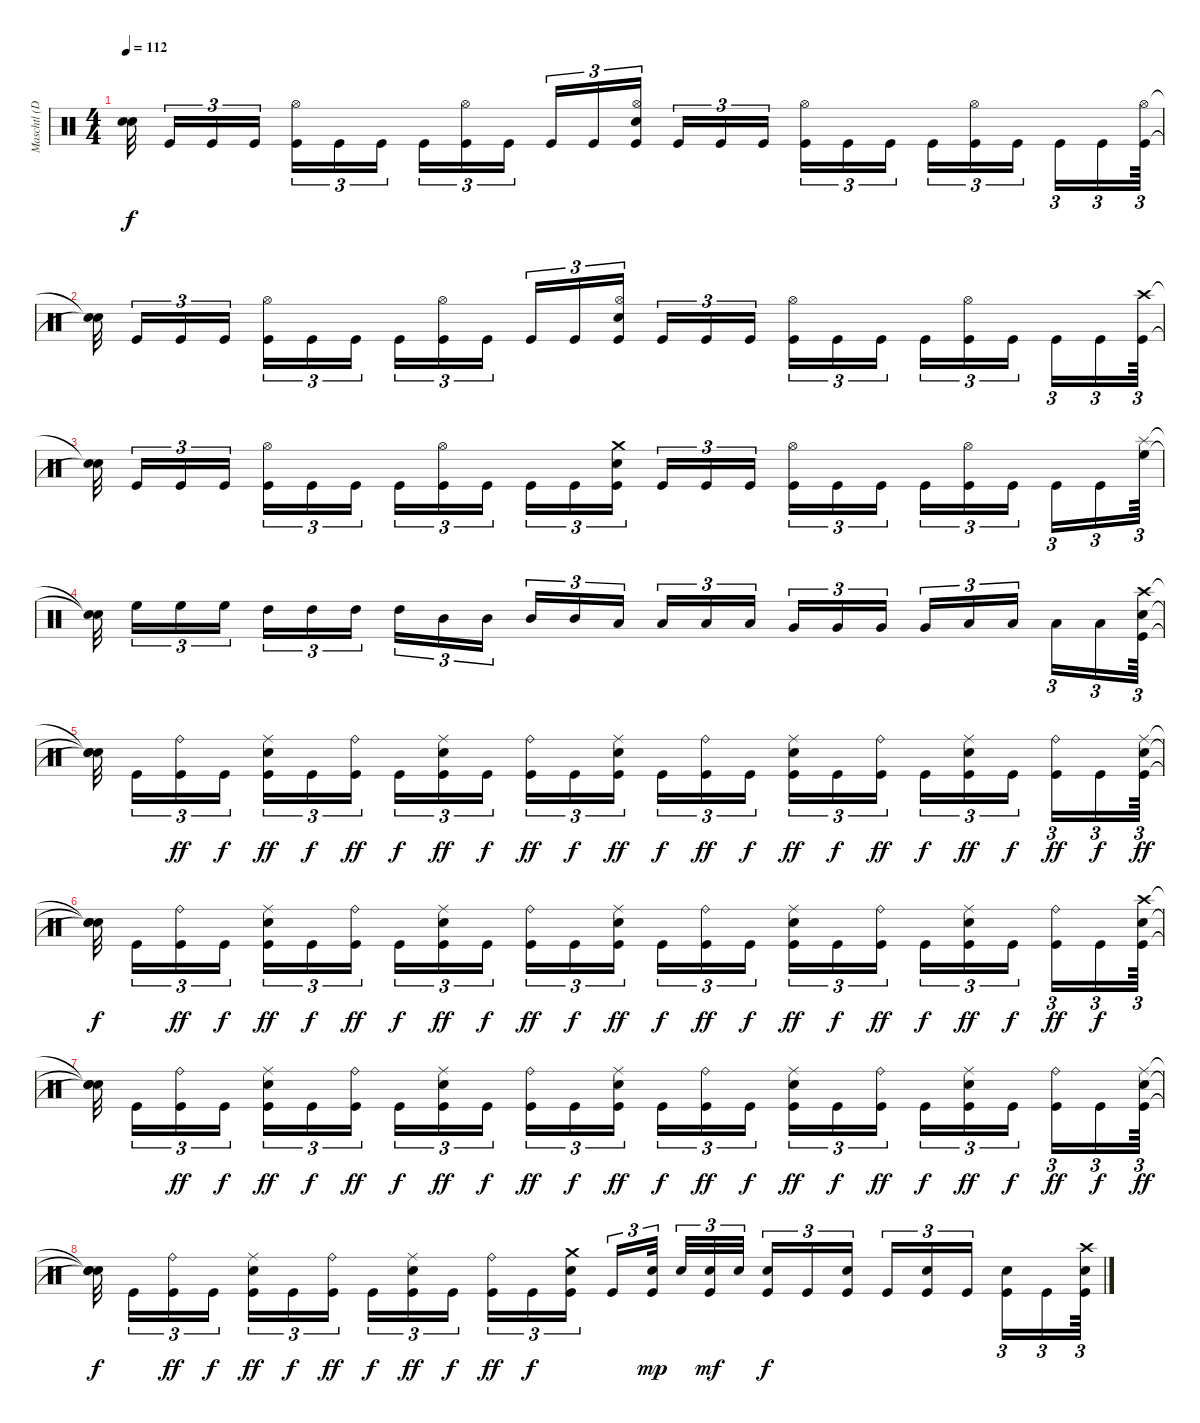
\track ("Maschtl (Drums)" "Maschtl (D") {instrument percussion}
\staff {score}
\articulation defaults
\ts (4 4)
\tempo 112
\clef neutral
\ks c
("Snare (hit)"{t} "Snare (hit)"{t}).32{dy f} "Kick (hit)".16{tu (3 2)} "Kick (hit)".16{tu (3 2)} "Kick (hit)".16{tu (3 2)} ("Hi-Hat (open)" "Kick (hit)").16{tu (3 2)} "Kick (hit)".16{tu (3 2)} "Kick (hit)".16{tu (3 2)} "Kick (hit)".16{tu (3 2)} ("Hi-Hat (open)" "Kick (hit)").16{tu (3 2)} "Kick (hit)".16{tu (3 2)} "Kick (hit)".16{tu (3 2)} "Kick (hit)".16{tu (3 2)} ("Hi-Hat (open)" "Electric Snare (hit)" "Kick (hit)").16{tu (3 2)} "Kick (hit)".16{tu (3 2)} "Kick (hit)".16{tu (3 2)} "Kick (hit)".16{tu (3 2)} ("Hi-Hat (open)" "Kick (hit)").16{tu (3 2)} "Kick (hit)".16{tu (3 2)} "Kick (hit)".16{tu (3 2)} "Kick (hit)".16{tu (3 2)} ("Hi-Hat (open)" "Kick (hit)").16{tu (3 2)} "Kick (hit)".16{tu (3 2)} "Kick (hit)".16{tu (3 2)} "Kick (hit)".16{tu (3 2)} ("Hi-Hat (open)" "Kick (hit)").64{tu (3 2)} |
("Snare (hit)"{t} "Snare (hit)"{t}).32 "Kick (hit)".16{tu (3 2)} "Kick (hit)".16{tu (3 2)} "Kick (hit)".16{tu (3 2)} ("Hi-Hat (open)" "Kick (hit)").16{tu (3 2)} "Kick (hit)".16{tu (3 2)} "Kick (hit)".16{tu (3 2)} "Kick (hit)".16{tu (3 2)} ("Hi-Hat (open)" "Kick (hit)").16{tu (3 2)} "Kick (hit)".16{tu (3 2)} "Kick (hit)".16{tu (3 2)} "Kick (hit)".16{tu (3 2)} ("Hi-Hat (open)" "Electric Snare (hit)" "Kick (hit)").16{tu (3 2)} "Kick (hit)".16{tu (3 2)} "Kick (hit)".16{tu (3 2)} "Kick (hit)".16{tu (3 2)} ("Hi-Hat (open)" "Kick (hit)").16{tu (3 2)} "Kick (hit)".16{tu (3 2)} "Kick (hit)".16{tu (3 2)} "Kick (hit)".16{tu (3 2)} ("Hi-Hat (open)" "Kick (hit)").16{tu (3 2)} "Kick (hit)".16{tu (3 2)} "Kick (hit)".16{tu (3 2)} "Kick (hit)".16{tu (3 2)} ("Crash high (hit)" "Kick (hit)").64{tu (3 2)} |
("Snare (hit)"{t} "Snare (hit)"{t}).32 "Kick (hit)".16{tu (3 2)} "Kick (hit)".16{tu (3 2)} "Kick (hit)".16{tu (3 2)} ("Hi-Hat (open)" "Kick (hit)").16{tu (3 2)} "Kick (hit)".16{tu (3 2)} "Kick (hit)".16{tu (3 2)} "Kick (hit)".16{tu (3 2)} ("Hi-Hat (open)" "Kick (hit)").16{tu (3 2)} "Kick (hit)".16{tu (3 2)} "Kick (hit)".16{tu (3 2)} "Kick (hit)".16{tu (3 2)} ("Crash medium (hit)" "Electric Snare (hit)" "Kick (hit)").16{tu (3 2)} "Kick (hit)".16{tu (3 2)} "Kick (hit)".16{tu (3 2)} "Kick (hit)".16{tu (3 2)} ("Hi-Hat (open)" "Kick (hit)").16{tu (3 2)} "Kick (hit)".16{tu (3 2)} "Kick (hit)".16{tu (3 2)} "Kick (hit)".16{tu (3 2)} ("Hi-Hat (open)" "Kick (hit)").16{tu (3 2)} "Kick (hit)".16{tu (3 2)} "Kick (hit)".16{tu (3 2)} "Kick (hit)".16{tu (3 2)} ("Splash (hit)" "High Floor Tom (hit)").64{tu (3 2)} |
("Snare (hit)"{t} "Snare (hit)"{t}).32 "High Floor Tom (hit)".16{tu (3 2)} "High Floor Tom (hit)".16{tu (3 2)} "High Floor Tom (hit)".16{tu (3 2)} "High Tom (hit)".16{tu (3 2)} "High Tom (hit)".16{tu (3 2)} "High Tom (hit)".16{tu (3 2)} "High Tom (hit)".16{tu (3 2)} "Mid Tom (hit)".16{tu (3 2)} "Mid Tom (hit)".16{tu (3 2)} "Mid Tom (hit)".16{tu (3 2)} "Mid Tom (hit)".16{tu (3 2)} "Low Tom (hit)".16{tu (3 2)} "Low Tom (hit)".16{tu (3 2)} "Low Tom (hit)".16{tu (3 2)} "Low Tom (hit)".16{tu (3 2)} "Very Low Tom (hit)".16{tu (3 2)} "Very Low Tom (hit)".16{tu (3 2)} "Very Low Tom (hit)".16{tu (3 2)} "Very Low Tom (hit)".16{tu (3 2)} "Low Floor Tom (hit)".16{tu (3 2)} "Low Floor Tom (hit)".16{tu (3 2)} "Low Floor Tom (hit)".16{tu (3 2)} "Low Floor Tom (hit)".16{tu (3 2)} ("Crash high (hit)" "Electric Snare (hit)" "Kick (hit)").64{tu (3 2)} |
("Snare (hit)"{t} "Snare (hit)"{t} "Snare (hit)"{t}).32 "Kick (hit)".16{tu (3 2)} ("Ride (bell)" "Kick (hit)").16{tu (3 2) dy ff} "Kick (hit)".16{tu (3 2) dy f} ("Ride (middle)" "Electric Snare (hit)" "Kick (hit)").16{tu (3 2) dy ff} "Kick (hit)".16{tu (3 2) dy f} ("Ride (bell)" "Kick (hit)").16{tu (3 2) dy ff} "Kick (hit)".16{tu (3 2) dy f} ("Ride (middle)" "Electric Snare (hit)" "Kick (hit)").16{tu (3 2) dy ff} "Kick (hit)".16{tu (3 2) dy f} ("Ride (bell)" "Kick (hit)").16{tu (3 2) dy ff} "Kick (hit)".16{tu (3 2) dy f} ("Ride (middle)" "Electric Snare (hit)" "Kick (hit)").16{tu (3 2) dy ff} "Kick (hit)".16{tu (3 2) dy f} ("Ride (bell)" "Kick (hit)").16{tu (3 2) dy ff} "Kick (hit)".16{tu (3 2) dy f} ("Ride (middle)" "Electric Snare (hit)" "Kick (hit)").16{tu (3 2) dy ff} "Kick (hit)".16{tu (3 2) dy f} ("Ride (bell)" "Kick (hit)").16{tu (3 2) dy ff} "Kick (hit)".16{tu (3 2) dy f} ("Ride (middle)" "Electric Snare (hit)" "Kick (hit)").16{tu (3 2) dy ff} "Kick (hit)".16{tu (3 2) dy f} ("Ride (bell)" "Kick (hit)").16{tu (3 2) dy ff} "Kick (hit)".16{tu (3 2) dy f} ("Ride (middle)" "Electric Snare (hit)" "Kick (hit)").64{tu (3 2) dy ff} |
("Snare (hit)"{t} "Snare (hit)"{t} "Snare (hit)"{t}).32{dy f} "Kick (hit)".16{tu (3 2)} ("Ride (bell)" "Kick (hit)").16{tu (3 2) dy ff} "Kick (hit)".16{tu (3 2) dy f} ("Ride (middle)" "Electric Snare (hit)" "Kick (hit)").16{tu (3 2) dy ff} "Kick (hit)".16{tu (3 2) dy f} ("Ride (bell)" "Kick (hit)").16{tu (3 2) dy ff} "Kick (hit)".16{tu (3 2) dy f} ("Ride (middle)" "Electric Snare (hit)" "Kick (hit)").16{tu (3 2) dy ff} "Kick (hit)".16{tu (3 2) dy f} ("Ride (bell)" "Kick (hit)").16{tu (3 2) dy ff} "Kick (hit)".16{tu (3 2) dy f} ("Ride (middle)" "Electric Snare (hit)" "Kick (hit)").16{tu (3 2) dy ff} "Kick (hit)".16{tu (3 2) dy f} ("Ride (bell)" "Kick (hit)").16{tu (3 2) dy ff} "Kick (hit)".16{tu (3 2) dy f} ("Ride (middle)" "Electric Snare (hit)" "Kick (hit)").16{tu (3 2) dy ff} "Kick (hit)".16{tu (3 2) dy f} ("Ride (bell)" "Kick (hit)").16{tu (3 2) dy ff} "Kick (hit)".16{tu (3 2) dy f} ("Ride (middle)" "Electric Snare (hit)" "Kick (hit)").16{tu (3 2) dy ff} "Kick (hit)".16{tu (3 2) dy f} ("Ride (bell)" "Kick (hit)").16{tu (3 2) dy ff} "Kick (hit)".16{tu (3 2) dy f} ("Crash high (hit)" "Electric Snare (hit)" "Kick (hit)").64{tu (3 2)} |
("Snare (hit)"{t} "Snare (hit)"{t} "Snare (hit)"{t}).32 "Kick (hit)".16{tu (3 2)} ("Ride (bell)" "Kick (hit)").16{tu (3 2) dy ff} "Kick (hit)".16{tu (3 2) dy f} ("Ride (middle)" "Electric Snare (hit)" "Kick (hit)").16{tu (3 2) dy ff} "Kick (hit)".16{tu (3 2) dy f} ("Ride (bell)" "Kick (hit)").16{tu (3 2) dy ff} "Kick (hit)".16{tu (3 2) dy f} ("Ride (middle)" "Electric Snare (hit)" "Kick (hit)").16{tu (3 2) dy ff} "Kick (hit)".16{tu (3 2) dy f} ("Ride (bell)" "Kick (hit)").16{tu (3 2) dy ff} "Kick (hit)".16{tu (3 2) dy f} ("Ride (middle)" "Electric Snare (hit)" "Kick (hit)").16{tu (3 2) dy ff} "Kick (hit)".16{tu (3 2) dy f} ("Ride (bell)" "Kick (hit)").16{tu (3 2) dy ff} "Kick (hit)".16{tu (3 2) dy f} ("Ride (middle)" "Electric Snare (hit)" "Kick (hit)").16{tu (3 2) dy ff} "Kick (hit)".16{tu (3 2) dy f} ("Ride (bell)" "Kick (hit)").16{tu (3 2) dy ff} "Kick (hit)".16{tu (3 2) dy f} ("Ride (middle)" "Electric Snare (hit)" "Kick (hit)").16{tu (3 2) dy ff} "Kick (hit)".16{tu (3 2) dy f} ("Ride (bell)" "Kick (hit)").16{tu (3 2) dy ff} "Kick (hit)".16{tu (3 2) dy f} ("Ride (middle)" "Electric Snare (hit)" "Kick (hit)").64{tu (3 2) dy ff} |
("Snare (hit)"{t} "Snare (hit)"{t} "Snare (hit)"{t}).32{dy f} "Kick (hit)".16{tu (3 2)} ("Ride (bell)" "Kick (hit)").16{tu (3 2) dy ff} "Kick (hit)".16{tu (3 2) dy f} ("Ride (middle)" "Electric Snare (hit)" "Kick (hit)").16{tu (3 2) dy ff} "Kick (hit)".16{tu (3 2) dy f} ("Ride (bell)" "Kick (hit)").16{tu (3 2) dy ff} "Kick (hit)".16{tu (3 2) dy f} ("Ride (middle)" "Electric Snare (hit)" "Kick (hit)").16{tu (3 2) dy ff} "Kick (hit)".16{tu (3 2) dy f} ("Ride (bell)" "Kick (hit)").16{tu (3 2) dy ff} "Kick (hit)".16{tu (3 2) dy f} ("Crash medium (hit)" "Electric Snare (hit)" "Kick (hit)").16{tu (3 2)} "Kick (hit)".16{tu (3 2)} ("Electric Snare (hit)" "Kick (hit)").32{tu (3 2) dy mp} "Electric Snare (hit)".32{tu (3 2)} ("Electric Snare (hit)" "Kick (hit)").32{tu (3 2) dy mf} "Electric Snare (hit)".32{tu (3 2)} ("Electric Snare (hit)" "Kick (hit)").16{tu (3 2) dy f} "Kick (hit)".16{tu (3 2)} ("Electric Snare (hit)" "Kick (hit)").16{tu (3 2)} "Kick (hit)".16{tu (3 2)} ("Electric Snare (hit)" "Kick (hit)").16{tu (3 2)} "Kick (hit)".16{tu (3 2)} ("Electric Snare (hit)" "Kick (hit)").16{tu (3 2)} "Kick (hit)".16{tu (3 2)} ("Crash high (hit)" "Electric Snare (hit)" "Kick (hit)").64{tu (3 2)}
